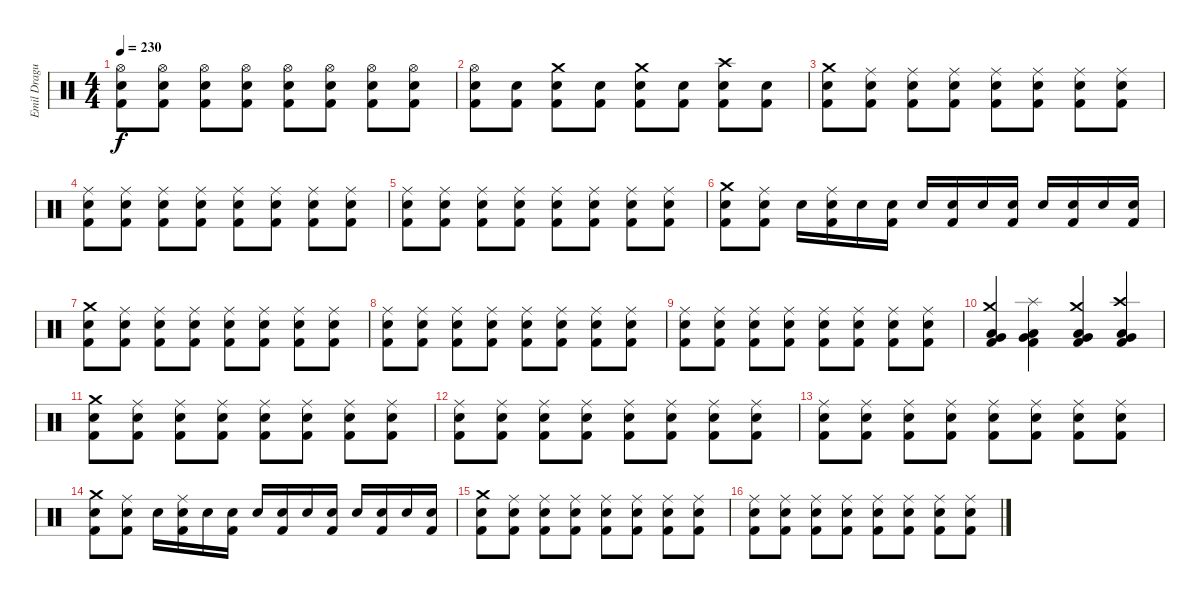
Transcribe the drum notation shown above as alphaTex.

\track ("Emil Dragutinovic" "Emil Dragu") {instrument percussion}
\staff {score}
\articulation defaults
\ts (4 4)
\tempo 230
\clef neutral
\ks c
("Hi-Hat (open)" "Electric Snare (hit)" "Kick (hit) 2").8{dy f} ("Hi-Hat (open)" "Electric Snare (hit)" "Kick (hit) 2").8 ("Hi-Hat (open)" "Electric Snare (hit)" "Kick (hit) 2").8 ("Hi-Hat (open)" "Electric Snare (hit)" "Kick (hit) 2").8 ("Hi-Hat (open)" "Electric Snare (hit)" "Kick (hit) 2").8 ("Hi-Hat (open)" "Electric Snare (hit)" "Kick (hit) 2").8 ("Hi-Hat (open)" "Electric Snare (hit)" "Kick (hit) 2").8 ("Hi-Hat (open)" "Electric Snare (hit)" "Kick (hit) 2").8 |
("Hi-Hat (open)" "Electric Snare (hit)" "Kick (hit) 2").8 ("Electric Snare (hit)" "Kick (hit) 2").8 ("Crash medium (hit)" "Electric Snare (hit)" "Kick (hit) 2").8 ("Electric Snare (hit)" "Kick (hit) 2").8 ("Crash medium (hit)" "Electric Snare (hit)" "Kick (hit) 2").8 ("Electric Snare (hit)" "Kick (hit) 2").8 ("Crash high (hit)" "Electric Snare (hit)" "Kick (hit) 2").8 ("Electric Snare (hit)" "Kick (hit) 2").8 |
("Crash medium (hit)" "Electric Snare (hit)" "Kick (hit) 2").8 ("Ride (middle)" "Electric Snare (hit)" "Kick (hit) 2").8 ("Ride (middle)" "Electric Snare (hit)" "Kick (hit) 2").8 ("Ride (middle)" "Electric Snare (hit)" "Kick (hit) 2").8 ("Ride (middle)" "Electric Snare (hit)" "Kick (hit) 2").8 ("Ride (middle)" "Electric Snare (hit)" "Kick (hit) 2").8 ("Ride (middle)" "Electric Snare (hit)" "Kick (hit) 2").8 ("Ride (middle)" "Electric Snare (hit)" "Kick (hit) 2").8 |
("Ride (middle)" "Electric Snare (hit)" "Kick (hit) 2").8 ("Ride (middle)" "Electric Snare (hit)" "Kick (hit) 2").8 ("Ride (middle)" "Electric Snare (hit)" "Kick (hit) 2").8 ("Ride (middle)" "Electric Snare (hit)" "Kick (hit) 2").8 ("Ride (middle)" "Electric Snare (hit)" "Kick (hit) 2").8 ("Ride (middle)" "Electric Snare (hit)" "Kick (hit) 2").8 ("Ride (middle)" "Electric Snare (hit)" "Kick (hit) 2").8 ("Ride (middle)" "Electric Snare (hit)" "Kick (hit) 2").8 |
("Ride (middle)" "Electric Snare (hit)" "Kick (hit) 2").8 ("Ride (middle)" "Electric Snare (hit)" "Kick (hit) 2").8 ("Ride (middle)" "Electric Snare (hit)" "Kick (hit) 2").8 ("Ride (middle)" "Electric Snare (hit)" "Kick (hit) 2").8 ("Ride (middle)" "Electric Snare (hit)" "Kick (hit) 2").8 ("Ride (middle)" "Electric Snare (hit)" "Kick (hit) 2").8 ("Ride (middle)" "Electric Snare (hit)" "Kick (hit) 2").8 ("Ride (middle)" "Electric Snare (hit)" "Kick (hit) 2").8 |
("Crash medium (hit)" "Electric Snare (hit)" "Kick (hit) 2").8 ("Ride (middle)" "Electric Snare (hit)" "Kick (hit) 2").8 "Electric Snare (hit)".16 ("Ride (middle)" "Electric Snare (hit)" "Kick (hit) 2").16 "Electric Snare (hit)".16 ("Electric Snare (hit)" "Kick (hit) 2").16 "Electric Snare (hit)".16 ("Electric Snare (hit)" "Kick (hit) 2").16 "Electric Snare (hit)".16 ("Electric Snare (hit)" "Kick (hit) 2").16 "Electric Snare (hit)".16 ("Electric Snare (hit)" "Kick (hit) 2").16 "Electric Snare (hit)".16 ("Electric Snare (hit)" "Kick (hit) 2").16 |
("Crash medium (hit)" "Electric Snare (hit)" "Kick (hit) 2").8 ("Ride (middle)" "Electric Snare (hit)" "Kick (hit) 2").8 ("Ride (middle)" "Electric Snare (hit)" "Kick (hit) 2").8 ("Ride (middle)" "Electric Snare (hit)" "Kick (hit) 2").8 ("Ride (middle)" "Electric Snare (hit)" "Kick (hit) 2").8 ("Ride (middle)" "Electric Snare (hit)" "Kick (hit) 2").8 ("Ride (middle)" "Electric Snare (hit)" "Kick (hit) 2").8 ("Ride (middle)" "Electric Snare (hit)" "Kick (hit) 2").8 |
("Ride (middle)" "Electric Snare (hit)" "Kick (hit) 2").8 ("Ride (middle)" "Electric Snare (hit)" "Kick (hit) 2").8 ("Ride (middle)" "Electric Snare (hit)" "Kick (hit) 2").8 ("Ride (middle)" "Electric Snare (hit)" "Kick (hit) 2").8 ("Ride (middle)" "Electric Snare (hit)" "Kick (hit) 2").8 ("Ride (middle)" "Electric Snare (hit)" "Kick (hit) 2").8 ("Ride (middle)" "Electric Snare (hit)" "Kick (hit) 2").8 ("Ride (middle)" "Electric Snare (hit)" "Kick (hit) 2").8 |
("Ride (middle)" "Electric Snare (hit)" "Kick (hit) 2").8 ("Ride (middle)" "Electric Snare (hit)" "Kick (hit) 2").8 ("Ride (middle)" "Electric Snare (hit)" "Kick (hit) 2").8 ("Ride (middle)" "Electric Snare (hit)" "Kick (hit) 2").8 ("Ride (middle)" "Electric Snare (hit)" "Kick (hit) 2").8 ("Ride (middle)" "Electric Snare (hit)" "Kick (hit) 2").8 ("Ride (middle)" "Electric Snare (hit)" "Kick (hit) 2").8 ("Ride (middle)" "Electric Snare (hit)" "Kick (hit) 2").8 |
("Crash medium (hit)" "Very Low Tom (hit)" "Low Tom (hit)" "Kick (hit) 2").4 ("Splash (hit)" "Very Low Tom (hit)" "Low Tom (hit)" "Kick (hit) 2").4 ("Crash medium (hit)" "Low Floor Tom (hit)" "Very Low Tom (hit)" "Kick (hit) 2").4 ("Crash high (hit)" "Low Floor Tom (hit)" "Very Low Tom (hit)" "Kick (hit) 2").4 |
("Crash medium (hit)" "Electric Snare (hit)" "Kick (hit) 2").8 ("Ride (middle)" "Electric Snare (hit)" "Kick (hit) 2").8 ("Ride (middle)" "Electric Snare (hit)" "Kick (hit) 2").8 ("Ride (middle)" "Electric Snare (hit)" "Kick (hit) 2").8 ("Ride (middle)" "Electric Snare (hit)" "Kick (hit) 2").8 ("Ride (middle)" "Electric Snare (hit)" "Kick (hit) 2").8 ("Ride (middle)" "Electric Snare (hit)" "Kick (hit) 2").8 ("Ride (middle)" "Electric Snare (hit)" "Kick (hit) 2").8 |
("Ride (middle)" "Electric Snare (hit)" "Kick (hit) 2").8 ("Ride (middle)" "Electric Snare (hit)" "Kick (hit) 2").8 ("Ride (middle)" "Electric Snare (hit)" "Kick (hit) 2").8 ("Ride (middle)" "Electric Snare (hit)" "Kick (hit) 2").8 ("Ride (middle)" "Electric Snare (hit)" "Kick (hit) 2").8 ("Ride (middle)" "Electric Snare (hit)" "Kick (hit) 2").8 ("Ride (middle)" "Electric Snare (hit)" "Kick (hit) 2").8 ("Ride (middle)" "Electric Snare (hit)" "Kick (hit) 2").8 |
("Ride (middle)" "Electric Snare (hit)" "Kick (hit) 2").8 ("Ride (middle)" "Electric Snare (hit)" "Kick (hit) 2").8 ("Ride (middle)" "Electric Snare (hit)" "Kick (hit) 2").8 ("Ride (middle)" "Electric Snare (hit)" "Kick (hit) 2").8 ("Ride (middle)" "Electric Snare (hit)" "Kick (hit) 2").8 ("Ride (middle)" "Electric Snare (hit)" "Kick (hit) 2").8 ("Ride (middle)" "Electric Snare (hit)" "Kick (hit) 2").8 ("Ride (middle)" "Electric Snare (hit)" "Kick (hit) 2").8 |
("Crash medium (hit)" "Electric Snare (hit)" "Kick (hit) 2").8 ("Ride (middle)" "Electric Snare (hit)" "Kick (hit) 2").8 "Electric Snare (hit)".16 ("Ride (middle)" "Electric Snare (hit)" "Kick (hit) 2").16 "Electric Snare (hit)".16 ("Electric Snare (hit)" "Kick (hit) 2").16 "Electric Snare (hit)".16 ("Electric Snare (hit)" "Kick (hit) 2").16 "Electric Snare (hit)".16 ("Electric Snare (hit)" "Kick (hit) 2").16 "Electric Snare (hit)".16 ("Electric Snare (hit)" "Kick (hit) 2").16 "Electric Snare (hit)".16 ("Electric Snare (hit)" "Kick (hit) 2").16 |
("Crash medium (hit)" "Electric Snare (hit)" "Kick (hit) 2").8 ("Ride (middle)" "Electric Snare (hit)" "Kick (hit) 2").8 ("Ride (middle)" "Electric Snare (hit)" "Kick (hit) 2").8 ("Ride (middle)" "Electric Snare (hit)" "Kick (hit) 2").8 ("Ride (middle)" "Electric Snare (hit)" "Kick (hit) 2").8 ("Ride (middle)" "Electric Snare (hit)" "Kick (hit) 2").8 ("Ride (middle)" "Electric Snare (hit)" "Kick (hit) 2").8 ("Ride (middle)" "Electric Snare (hit)" "Kick (hit) 2").8 |
("Ride (middle)" "Electric Snare (hit)" "Kick (hit) 2").8 ("Ride (middle)" "Electric Snare (hit)" "Kick (hit) 2").8 ("Ride (middle)" "Electric Snare (hit)" "Kick (hit) 2").8 ("Ride (middle)" "Electric Snare (hit)" "Kick (hit) 2").8 ("Ride (middle)" "Electric Snare (hit)" "Kick (hit) 2").8 ("Ride (middle)" "Electric Snare (hit)" "Kick (hit) 2").8 ("Ride (middle)" "Electric Snare (hit)" "Kick (hit) 2").8 ("Ride (middle)" "Electric Snare (hit)" "Kick (hit) 2").8
